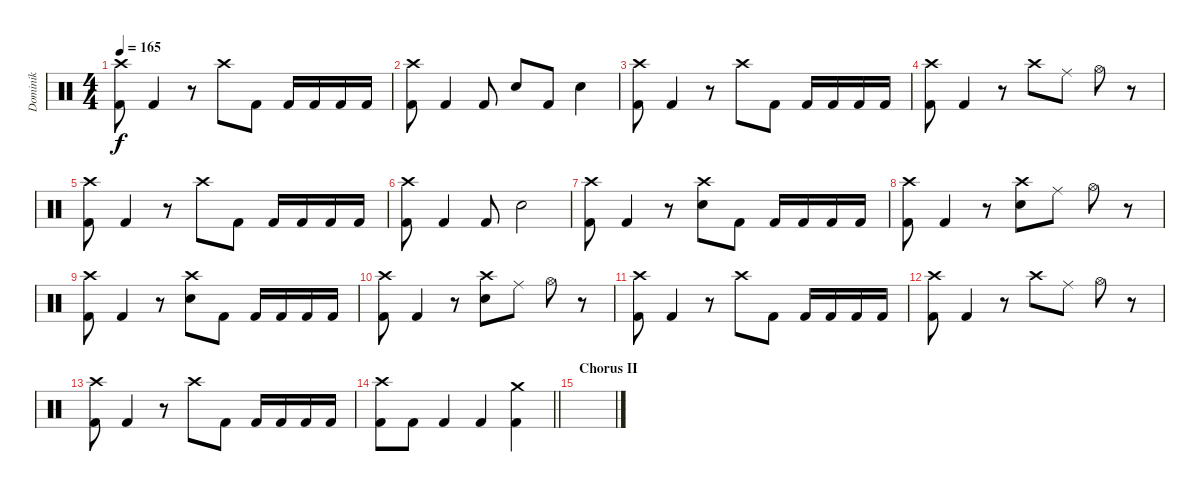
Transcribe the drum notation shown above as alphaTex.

\track ("Dominik" "Dominik") {instrument percussion}
\staff {score}
\articulation defaults
\ts (4 4)
\tempo 165
\clef neutral
\ks c
("Crash high (hit)" "Kick (hit) 2").8{dy f} "Kick (hit) 2".4 r.8 "Crash high (hit)".8 "Kick (hit) 2".8 "Kick (hit) 2".16 "Kick (hit) 2".16 "Kick (hit) 2".16 "Kick (hit) 2".16 |
("Crash high (hit)" "Kick (hit) 2").8 "Kick (hit) 2".4 "Kick (hit) 2".8 "Electric Snare (hit)".8 "Kick (hit) 2".8 "Electric Snare (hit)".4 |
("Crash high (hit)" "Kick (hit) 2").8 "Kick (hit) 2".4 r.8 "Crash high (hit)".8 "Kick (hit) 2".8 "Kick (hit) 2".16 "Kick (hit) 2".16 "Kick (hit) 2".16 "Kick (hit) 2".16 |
("Crash high (hit)" "Kick (hit) 2").8 "Kick (hit) 2".4 r.8 "Crash high (hit)".8 "Ride (middle)".8 "Hi-Hat (open)".8 r.8 |
("Crash high (hit)" "Kick (hit) 2").8 "Kick (hit) 2".4 r.8 "Crash high (hit)".8 "Kick (hit) 2".8 "Kick (hit) 2".16 "Kick (hit) 2".16 "Kick (hit) 2".16 "Kick (hit) 2".16 |
("Crash high (hit)" "Kick (hit) 2").8 "Kick (hit) 2".4 "Kick (hit) 2".8 "Electric Snare (hit)".2 |
("Crash high (hit)" "Kick (hit) 2").8 "Kick (hit) 2".4 r.8 ("Crash high (hit)" "Electric Snare (hit)").8 "Kick (hit) 2".8 "Kick (hit) 2".16 "Kick (hit) 2".16 "Kick (hit) 2".16 "Kick (hit) 2".16 |
("Crash high (hit)" "Kick (hit) 2").8 "Kick (hit) 2".4 r.8 ("Crash high (hit)" "Electric Snare (hit)").8 "Ride (middle)".8 "Hi-Hat (open)".8 r.8 |
("Crash high (hit)" "Kick (hit) 2").8 "Kick (hit) 2".4 r.8 ("Crash high (hit)" "Electric Snare (hit)").8 "Kick (hit) 2".8 "Kick (hit) 2".16 "Kick (hit) 2".16 "Kick (hit) 2".16 "Kick (hit) 2".16 |
("Crash high (hit)" "Kick (hit) 2").8 "Kick (hit) 2".4 r.8 ("Crash high (hit)" "Electric Snare (hit)").8 "Ride (middle)".8 "Hi-Hat (open)".8 r.8 |
("Crash high (hit)" "Kick (hit) 2").8 "Kick (hit) 2".4 r.8 "Crash high (hit)".8 "Kick (hit) 2".8 "Kick (hit) 2".16 "Kick (hit) 2".16 "Kick (hit) 2".16 "Kick (hit) 2".16 |
("Crash high (hit)" "Kick (hit) 2").8 "Kick (hit) 2".4 r.8 "Crash high (hit)".8 "Ride (middle)".8 "Hi-Hat (open)".8 r.8 |
("Crash high (hit)" "Kick (hit) 2").8 "Kick (hit) 2".4 r.8 "Crash high (hit)".8 "Kick (hit) 2".8 "Kick (hit) 2".16 "Kick (hit) 2".16 "Kick (hit) 2".16 "Kick (hit) 2".16 |
\barLineRight lightlight
("Crash high (hit)" "Kick (hit) 2").8 "Kick (hit) 2".8 "Kick (hit) 2".4 "Kick (hit) 2".4 ("Crash medium (hit)" "Kick (hit) 2").4 |
\section ("" "Chorus II")
